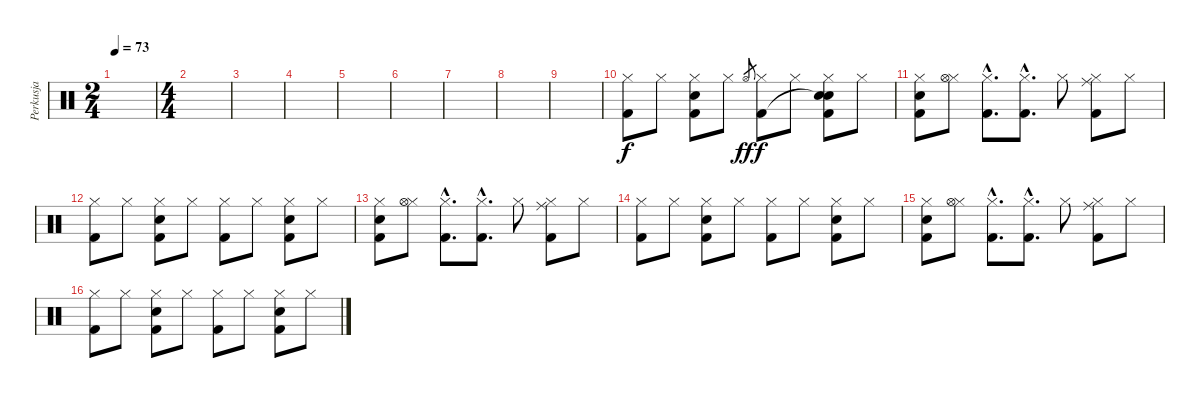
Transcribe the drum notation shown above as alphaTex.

\track ("Perkusja" "Perkusja") {instrument percussion}
\staff {score}
\articulation defaults
\ts (2 4)
\tempo 73
\clef neutral
\ks c
|
\ts (4 4)
|
|
|
|
|
|
|
|
("Hi-Hat (closed)" "Kick (hit) 2").8 "Hi-Hat (closed)".8 ("Hi-Hat (closed)" "Snare (hit) 2" "Kick (hit) 2").8 "Hi-Hat (closed)".8 "Hi-Hat (open)".8{gr dy ff} ("Hi-Hat (closed)" "Kick (hit) 2").8{dy f} "Hi-Hat (closed)".8 ("Hi-Hat (closed)" "Snare (hit)"{t} "Snare (hit) 2" "Kick (hit) 2").8 "Hi-Hat (closed)".8 |
("Hi-Hat (closed)" "Snare (hit) 2" "Kick (hit) 2").8 ("Hi-Hat (closed)" "Hi-Hat (open)").8 ("Hi-Hat (closed)"{hac} "Kick (hit) 2"{hac}).8{d} ("Hi-Hat (closed)"{hac} "Kick (hit) 2"{hac}).8{d} "Hi-Hat (closed)".8 ("Hi-Hat (closed)" "Ride (middle)" "Kick (hit) 2").8 "Hi-Hat (closed)".8 |
("Hi-Hat (closed)" "Kick (hit) 2").8 "Hi-Hat (closed)".8 ("Hi-Hat (closed)" "Snare (hit) 2" "Kick (hit) 2").8 "Hi-Hat (closed)".8 ("Hi-Hat (closed)" "Kick (hit) 2").8 "Hi-Hat (closed)".8 ("Hi-Hat (closed)" "Snare (hit) 2" "Kick (hit) 2").8 "Hi-Hat (closed)".8 |
("Hi-Hat (closed)" "Snare (hit) 2" "Kick (hit) 2").8 ("Hi-Hat (closed)" "Hi-Hat (open)").8 ("Hi-Hat (closed)"{hac} "Kick (hit) 2"{hac}).8{d} ("Hi-Hat (closed)"{hac} "Kick (hit) 2"{hac}).8{d} "Hi-Hat (closed)".8 ("Hi-Hat (closed)" "Ride (middle)" "Kick (hit) 2").8 "Hi-Hat (closed)".8 |
("Hi-Hat (closed)" "Kick (hit) 2").8 "Hi-Hat (closed)".8 ("Hi-Hat (closed)" "Snare (hit) 2" "Kick (hit) 2").8 "Hi-Hat (closed)".8 ("Hi-Hat (closed)" "Kick (hit) 2").8 "Hi-Hat (closed)".8 ("Hi-Hat (closed)" "Snare (hit) 2" "Kick (hit) 2").8 "Hi-Hat (closed)".8 |
("Hi-Hat (closed)" "Snare (hit) 2" "Kick (hit) 2").8 ("Hi-Hat (closed)" "Hi-Hat (open)").8 ("Hi-Hat (closed)"{hac} "Kick (hit) 2"{hac}).8{d} ("Hi-Hat (closed)"{hac} "Kick (hit) 2"{hac}).8{d} "Hi-Hat (closed)".8 ("Hi-Hat (closed)" "Ride (middle)" "Kick (hit) 2").8 "Hi-Hat (closed)".8 |
("Hi-Hat (closed)" "Kick (hit) 2").8 "Hi-Hat (closed)".8 ("Hi-Hat (closed)" "Snare (hit) 2" "Kick (hit) 2").8 "Hi-Hat (closed)".8 ("Hi-Hat (closed)" "Kick (hit) 2").8 "Hi-Hat (closed)".8 ("Hi-Hat (closed)" "Snare (hit) 2" "Kick (hit) 2").8 "Hi-Hat (closed)".8
